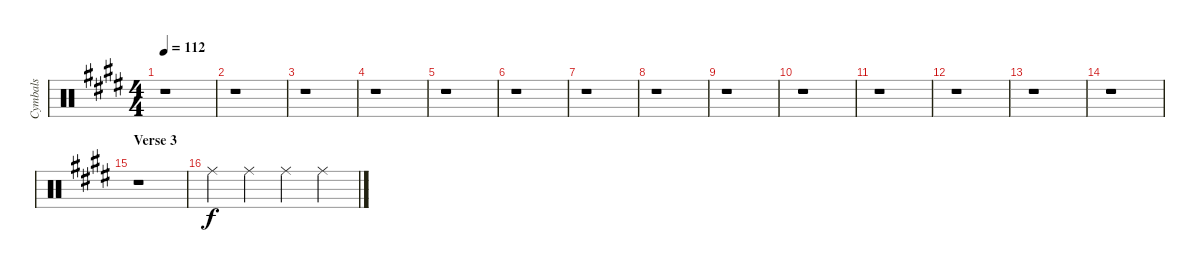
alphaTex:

\track ("Cymbals" "Cymbals") {instrument percussion}
\staff {score}
\articulation defaults
\ts (4 4)
\tempo 112
\clef neutral
\ks e
r.1{dy f} |
r.1 |
r.1 |
r.1 |
r.1 |
r.1 |
r.1 |
r.1 |
r.1 |
r.1 |
r.1 |
r.1 |
r.1 |
r.1 |
\section ("" "Verse 3")
r.1 |
"Ride (middle)".4 "Ride (middle)".4 "Ride (middle)".4 "Ride (middle)".4
